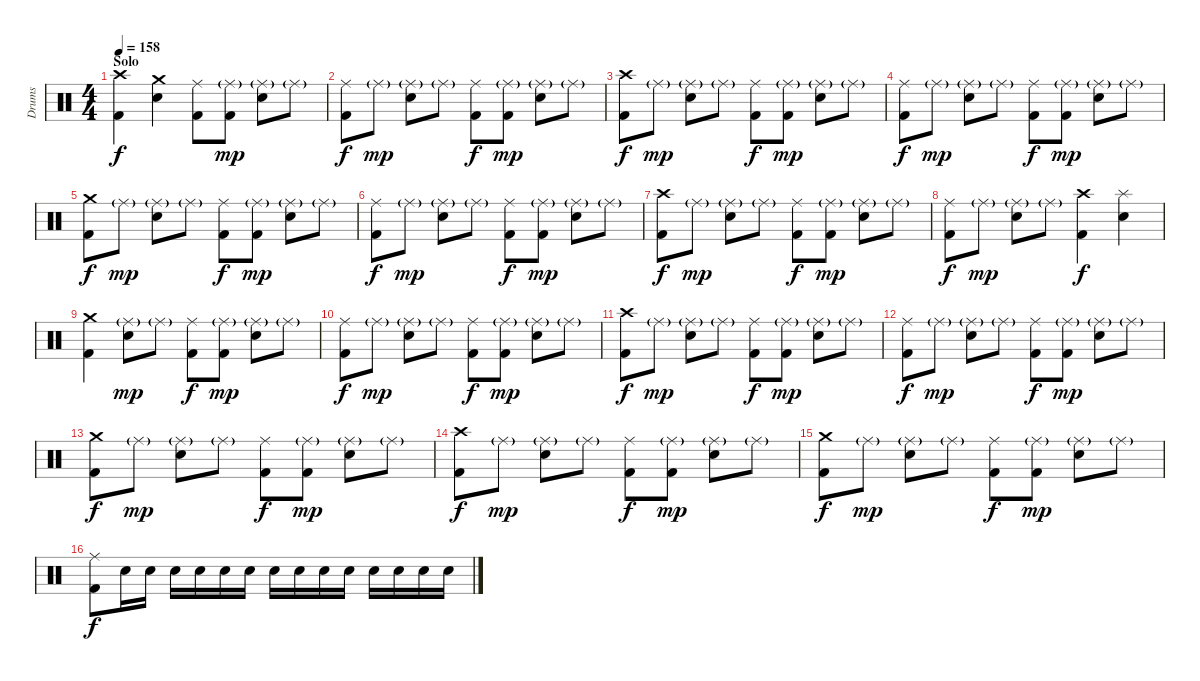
\track ("Drums" "Drums") {instrument percussion}
\staff {score}
\articulation defaults
\ts (4 4)
\section ("" "Solo")
\tempo 158
\clef neutral
\ks c
("Crash high (hit)" "Kick (hit) 2").4{dy f} ("Crash medium (hit)" "Snare (hit) 2").4 ("Ride (middle)" "Kick (hit) 2").8 ("Ride (middle)"{g} "Kick (hit) 2").8{dy mp} ("Ride (middle)"{g} "Snare (hit) 2").8 "Ride (middle)"{g}.8 |
("Ride (middle)" "Kick (hit) 2").8{dy f} "Ride (middle)"{g}.8{dy mp} ("Ride (middle)"{g} "Snare (hit) 2").8 "Ride (middle)"{g}.8 ("Ride (middle)" "Kick (hit) 2").8{dy f} ("Ride (middle)"{g} "Kick (hit) 2").8{dy mp} ("Ride (middle)"{g} "Snare (hit) 2").8 "Ride (middle)"{g}.8 |
("Crash high (hit)" "Kick (hit) 2").8{dy f} "Ride (middle)"{g}.8{dy mp} ("Ride (middle)"{g} "Snare (hit) 2").8 "Ride (middle)"{g}.8 ("Ride (middle)" "Kick (hit) 2").8{dy f} ("Ride (middle)"{g} "Kick (hit) 2").8{dy mp} ("Ride (middle)"{g} "Snare (hit) 2").8 "Ride (middle)"{g}.8 |
("Ride (middle)" "Kick (hit) 2").8{dy f} "Ride (middle)"{g}.8{dy mp} ("Ride (middle)"{g} "Snare (hit) 2").8 "Ride (middle)"{g}.8 ("Ride (middle)" "Kick (hit) 2").8{dy f} ("Ride (middle)"{g} "Kick (hit) 2").8{dy mp} ("Ride (middle)"{g} "Snare (hit) 2").8 "Ride (middle)"{g}.8 |
("Crash medium (hit)" "Kick (hit) 2").8{dy f} "Ride (middle)"{g}.8{dy mp} ("Ride (middle)"{g} "Snare (hit) 2").8 "Ride (middle)"{g}.8 ("Ride (middle)" "Kick (hit) 2").8{dy f} ("Ride (middle)"{g} "Kick (hit) 2").8{dy mp} ("Ride (middle)"{g} "Snare (hit) 2").8 "Ride (middle)"{g}.8 |
("Ride (middle)" "Kick (hit) 2").8{dy f} "Ride (middle)"{g}.8{dy mp} ("Ride (middle)"{g} "Snare (hit) 2").8 "Ride (middle)"{g}.8 ("Ride (middle)" "Kick (hit) 2").8{dy f} ("Ride (middle)"{g} "Kick (hit) 2").8{dy mp} ("Ride (middle)"{g} "Snare (hit) 2").8 "Ride (middle)"{g}.8 |
("Crash high (hit)" "Kick (hit) 2").8{dy f} "Ride (middle)"{g}.8{dy mp} ("Ride (middle)"{g} "Snare (hit) 2").8 "Ride (middle)"{g}.8 ("Ride (middle)" "Kick (hit) 2").8{dy f} ("Ride (middle)"{g} "Kick (hit) 2").8{dy mp} ("Ride (middle)"{g} "Snare (hit) 2").8 "Ride (middle)"{g}.8 |
("Ride (middle)" "Kick (hit) 2").8{dy f} "Ride (middle)"{g}.8{dy mp} ("Ride (middle)"{g} "Snare (hit) 2").8 "Ride (middle)"{g}.8 ("Crash high (hit)" "Kick (hit) 2").4{dy f} ("Splash (hit)" "Snare (hit) 2").4 |
("Crash medium (hit)" "Kick (hit) 2").4 ("Ride (middle)"{g} "Snare (hit) 2").8{dy mp} "Ride (middle)"{g}.8 ("Ride (middle)" "Kick (hit) 2").8{dy f} ("Ride (middle)"{g} "Kick (hit) 2").8{dy mp} ("Ride (middle)"{g} "Snare (hit) 2").8 "Ride (middle)"{g}.8 |
("Ride (middle)" "Kick (hit) 2").8{dy f} "Ride (middle)"{g}.8{dy mp} ("Ride (middle)"{g} "Snare (hit) 2").8 "Ride (middle)"{g}.8 ("Ride (middle)" "Kick (hit) 2").8{dy f} ("Ride (middle)"{g} "Kick (hit) 2").8{dy mp} ("Ride (middle)"{g} "Snare (hit) 2").8 "Ride (middle)"{g}.8 |
("Crash high (hit)" "Kick (hit) 2").8{dy f} "Ride (middle)"{g}.8{dy mp} ("Ride (middle)"{g} "Snare (hit) 2").8 "Ride (middle)"{g}.8 ("Ride (middle)" "Kick (hit) 2").8{dy f} ("Ride (middle)"{g} "Kick (hit) 2").8{dy mp} ("Ride (middle)"{g} "Snare (hit) 2").8 "Ride (middle)"{g}.8 |
("Ride (middle)" "Kick (hit) 2").8{dy f} "Ride (middle)"{g}.8{dy mp} ("Ride (middle)"{g} "Snare (hit) 2").8 "Ride (middle)"{g}.8 ("Ride (middle)" "Kick (hit) 2").8{dy f} ("Ride (middle)"{g} "Kick (hit) 2").8{dy mp} ("Ride (middle)"{g} "Snare (hit) 2").8 "Ride (middle)"{g}.8 |
("Crash medium (hit)" "Kick (hit) 2").8{dy f} "Ride (middle)"{g}.8{dy mp} ("Ride (middle)"{g} "Snare (hit) 2").8 "Ride (middle)"{g}.8 ("Ride (middle)" "Kick (hit) 2").8{dy f} ("Ride (middle)"{g} "Kick (hit) 2").8{dy mp} ("Ride (middle)"{g} "Snare (hit) 2").8 "Ride (middle)"{g}.8 |
("Crash high (hit)" "Kick (hit) 2").8{dy f} "Ride (middle)"{g}.8{dy mp} ("Ride (middle)"{g} "Snare (hit) 2").8 "Ride (middle)"{g}.8 ("Ride (middle)" "Kick (hit) 2").8{dy f} ("Ride (middle)"{g} "Kick (hit) 2").8{dy mp} ("Ride (middle)"{g} "Snare (hit) 2").8 "Ride (middle)"{g}.8 |
("Crash medium (hit)" "Kick (hit) 2").8{dy f} "Ride (middle)"{g}.8{dy mp} ("Ride (middle)"{g} "Snare (hit) 2").8 "Ride (middle)"{g}.8 ("Ride (middle)" "Kick (hit) 2").8{dy f} ("Ride (middle)"{g} "Kick (hit) 2").8{dy mp} ("Ride (middle)"{g} "Snare (hit) 2").8 "Ride (middle)"{g}.8 |
("Ride (middle)" "Kick (hit) 2").8{dy f} "Snare (hit) 2".16 "Snare (hit) 2".16 "Snare (hit) 2".16 "Snare (hit) 2".16 "Snare (hit) 2".16 "Snare (hit) 2".16 "Snare (hit) 2".16 "Snare (hit) 2".16 "Snare (hit) 2".16 "Snare (hit) 2".16 "Snare (hit) 2".16 "Snare (hit) 2".16 "Snare (hit) 2".16 "Snare (hit) 2".16
